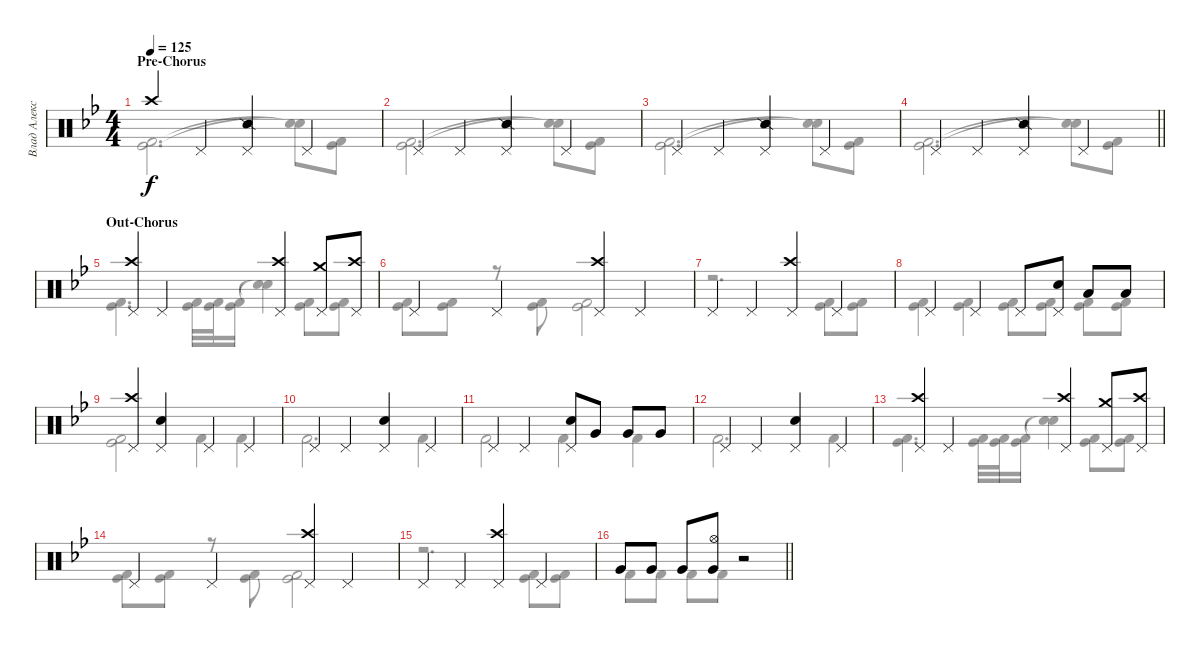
\track ("Влад Алексеенко" "Влад Алекс") {instrument percussion}
\staff {score}
\articulation defaults
\voice
\ts (4 4)
\section ("" "Pre-Chorus")
\tempo 125
\clef neutral
\ks bb "Crash high (hit)".4{dy f} "Pedal Hi-Hat (hit)".4
("Snare (side stick) 2" "Pedal Hi-Hat (hit)").4 "Pedal Hi-Hat (hit)".4 |
"Pedal Hi-Hat (hit)".4 "Pedal Hi-Hat (hit)".4 ("Snare (side stick) 2" "Pedal Hi-Hat (hit)").4 "Pedal Hi-Hat (hit)".4 |
"Pedal Hi-Hat (hit)".4 "Pedal Hi-Hat (hit)".4 ("Snare (side stick) 2" "Pedal Hi-Hat (hit)").4 "Pedal Hi-Hat (hit)".4 |
\barLineRight lightlight "Pedal Hi-Hat (hit)".4 "Pedal Hi-Hat (hit)".4
("Snare (side stick) 2" "Pedal Hi-Hat (hit)").4 "Pedal Hi-Hat (hit)".4 |
\section ("" "Out-Chorus")
("Pedal Hi-Hat (hit)" "Crash high (hit)").4 "Pedal Hi-Hat (hit)".4 ("Pedal Hi-Hat (hit)" "Crash high (hit)").4 ("Pedal Hi-Hat (hit)" "Crash medium (hit)").8 ("Pedal Hi-Hat (hit)" "Crash high (hit)").8 |
"Pedal Hi-Hat (hit)".4 "Pedal Hi-Hat (hit)".4 ("Pedal Hi-Hat (hit)" "Crash high (hit)").4 "Pedal Hi-Hat (hit)".4 |
"Pedal Hi-Hat (hit)".4 "Pedal Hi-Hat (hit)".4 ("Pedal Hi-Hat (hit)" "Crash high (hit)").4 "Pedal Hi-Hat (hit)".4 |
"Pedal Hi-Hat (hit)".4 "Pedal Hi-Hat (hit)".4 "Pedal Hi-Hat (hit)".8 ("Snare (hit) 2" "Pedal Hi-Hat (hit)").8 "Low Tom (hit)".8 "Low Tom (hit)".8 |
("Pedal Hi-Hat (hit)" "Crash high (hit)").4 ("Snare (hit) 2" "Pedal Hi-Hat (hit)").4 "Pedal Hi-Hat (hit)".4 "Pedal Hi-Hat (hit)".4 |
"Pedal Hi-Hat (hit)".4 "Pedal Hi-Hat (hit)".4 ("Snare (hit) 2" "Pedal Hi-Hat (hit)").4 "Pedal Hi-Hat (hit)".4 |
"Pedal Hi-Hat (hit)".4 "Pedal Hi-Hat (hit)".4 ("Snare (hit) 2" "Pedal Hi-Hat (hit)").8 "Very Low Tom (hit)".8 "Very Low Tom (hit)".8 "Very Low Tom (hit)".8 |
"Pedal Hi-Hat (hit)".4 "Pedal Hi-Hat (hit)".4 ("Snare (hit) 2" "Pedal Hi-Hat (hit)").4 "Pedal Hi-Hat (hit)".4 |
("Pedal Hi-Hat (hit)" "Crash high (hit)").4 "Pedal Hi-Hat (hit)".4 ("Pedal Hi-Hat (hit)" "Crash high (hit)").4 ("Pedal Hi-Hat (hit)" "Crash medium (hit)").8 ("Pedal Hi-Hat (hit)" "Crash high (hit)").8 |
"Pedal Hi-Hat (hit)".4 "Pedal Hi-Hat (hit)".4 ("Pedal Hi-Hat (hit)" "Crash high (hit)").4 "Pedal Hi-Hat (hit)".4 |
"Pedal Hi-Hat (hit)".4 "Pedal Hi-Hat (hit)".4 ("Pedal Hi-Hat (hit)" "Crash high (hit)").4 "Pedal Hi-Hat (hit)".4 |
\barLineRight lightlight "Very Low Tom (hit)".8 "Very Low Tom (hit)".8 "Very Low Tom (hit)".8
("Very Low Tom (hit)" "Hi-Hat (open)").8 r.2
\voice
\clef neutral
\ottava regular
\simile none
\ks bb
("Kick (hit)" "Kick (hit) 2").2{d dy f} ("Snare (hit)"{t} "Snare (hit)"{t}).8 ("Kick (hit)" "Kick (hit) 2").8 |
("Kick (hit)" "Kick (hit) 2").2{d} ("Snare (hit)"{t} "Snare (hit)"{t}).8 ("Kick (hit)" "Kick (hit) 2").8 |
("Kick (hit)" "Kick (hit) 2").2{d} ("Snare (hit)"{t} "Snare (hit)"{t}).8 ("Kick (hit)" "Kick (hit) 2").8 |
\barLineRight lightlight
("Kick (hit)" "Kick (hit) 2").2{d} ("Snare (hit)"{t} "Snare (hit)"{t}).8 ("Kick (hit)" "Kick (hit) 2").8 |
("Kick (hit)" "Kick (hit) 2").4{d} ("Kick (hit)" "Kick (hit) 2").32 ("Kick (hit)" "Kick (hit) 2").32 ("Kick (hit)" "Kick (hit) 2").16 ("Snare (hit)"{t} "Snare (hit)"{t}).4 ("Kick (hit)" "Kick (hit) 2").8 ("Kick (hit)" "Kick (hit) 2").8 |
("Kick (hit)" "Kick (hit) 2").8 ("Kick (hit)" "Kick (hit) 2").8 r.8 ("Kick (hit)" "Kick (hit) 2").8 ("Kick (hit)" "Kick (hit) 2").2 |
r.2{d} ("Kick (hit)" "Kick (hit) 2").8 ("Kick (hit)" "Kick (hit) 2").8 |
("Kick (hit)" "Kick (hit) 2").4 ("Kick (hit)" "Kick (hit) 2").4 ("Kick (hit)" "Kick (hit) 2").8 ("Kick (hit)" "Kick (hit) 2").8 ("Kick (hit)" "Kick (hit) 2").8 ("Kick (hit)" "Kick (hit) 2").8 |
("Kick (hit)" "Kick (hit) 2").2 "Kick (hit) 2".4 "Kick (hit) 2".4 |
"Kick (hit) 2".2{d} "Kick (hit) 2".4 |
"Kick (hit) 2".2 "Kick (hit) 2".4 "Kick (hit) 2".4 |
"Kick (hit) 2".2{d} "Kick (hit) 2".4 |
("Kick (hit)" "Kick (hit) 2").4{d} ("Kick (hit)" "Kick (hit) 2").32 ("Kick (hit)" "Kick (hit) 2").32 ("Kick (hit)" "Kick (hit) 2").16 ("Snare (hit)"{t} "Snare (hit)"{t}).4 ("Kick (hit)" "Kick (hit) 2").8 ("Kick (hit)" "Kick (hit) 2").8 |
("Kick (hit)" "Kick (hit) 2").8 ("Kick (hit)" "Kick (hit) 2").8 r.8 ("Kick (hit)" "Kick (hit) 2").8 ("Kick (hit)" "Kick (hit) 2").2 |
r.2{d} ("Kick (hit)" "Kick (hit) 2").8 ("Kick (hit)" "Kick (hit) 2").8 |
\barLineRight lightlight "Kick (hit) 2".8 "Kick (hit) 2".8 "Kick (hit) 2".8 "Kick (hit) 2".8
r.2
